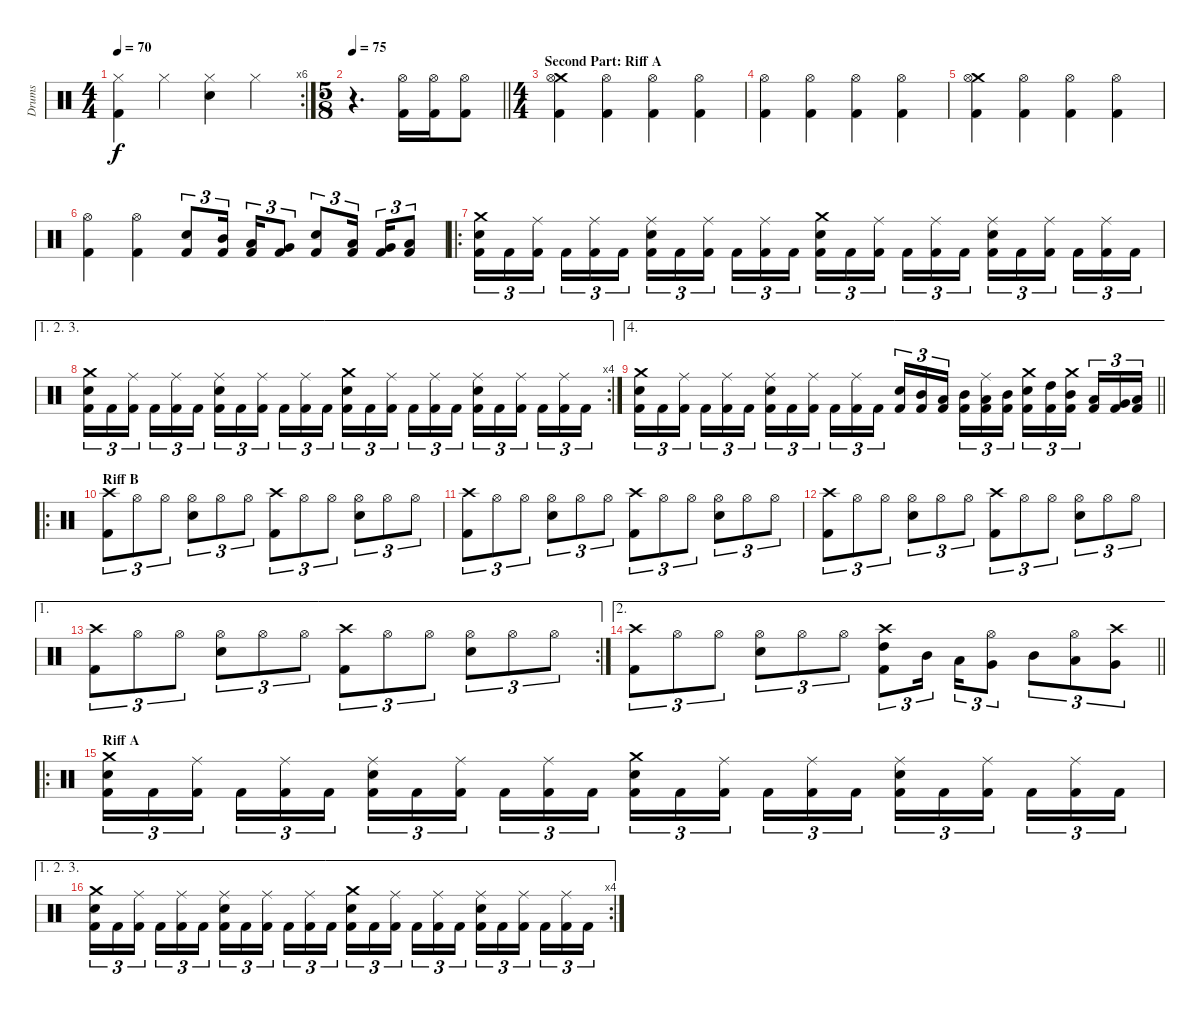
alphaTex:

\track ("Drums" "Drums") {instrument percussion}
\staff {score}
\articulation defaults
\rc 6
\ts (4 4)
\tempo 70
\clef neutral
\ks c
("Hi-Hat (closed)" "Kick (hit) 2").4{dy f} "Hi-Hat (closed)".4 ("Hi-Hat (closed)" "Electric Snare (hit)").4 "Hi-Hat (closed)".4 |
\ts (5 8)
\tempo 75
\barLineRight lightlight
r.4{d} ("Hi-Hat (open)" "Kick (hit) 2").16 ("Hi-Hat (open)" "Kick (hit) 2").16 ("Hi-Hat (open)" "Kick (hit) 2").8 |
\ts (4 4)
\section ("" "Second Part: Riff A")
("Crash medium (hit)" "Hi-Hat (open)" "Kick (hit) 2").4 ("Hi-Hat (open)" "Kick (hit) 2").4 ("Hi-Hat (open)" "Kick (hit) 2").4 ("Hi-Hat (open)" "Kick (hit) 2").4 |
("Hi-Hat (open)" "Kick (hit) 2").4 ("Hi-Hat (open)" "Kick (hit) 2").4 ("Hi-Hat (open)" "Kick (hit) 2").4 ("Hi-Hat (open)" "Kick (hit) 2").4 |
("Crash medium (hit)" "Hi-Hat (open)" "Kick (hit) 2").4 ("Hi-Hat (open)" "Kick (hit) 2").4 ("Hi-Hat (open)" "Kick (hit) 2").4 ("Hi-Hat (open)" "Kick (hit) 2").4 |
("Hi-Hat (open)" "Kick (hit) 2").4 ("Hi-Hat (open)" "Kick (hit) 2").4 ("Electric Snare (hit)" "Kick (hit) 2").8{tu (3 2)} ("Mid Tom (hit)" "Kick (hit) 2").16{tu (3 2) beam splitsecondary} ("Low Tom (hit)" "Kick (hit) 2").16{tu (3 2)} ("Very Low Tom (hit)" "Kick (hit) 2").8{tu (3 2)} ("Electric Snare (hit)" "Kick (hit) 2").8{tu (3 2)} ("Low Tom (hit)" "Kick (hit) 2").16{tu (3 2) beam splitsecondary} ("Very Low Tom (hit)" "Kick (hit) 2").16{tu (3 2)} ("Low Floor Tom (hit)" "Kick (hit) 2").8{tu (3 2)} |
\ro
("Crash medium (hit)" "Electric Snare (hit)" "Kick (hit) 2").16{tu (3 2)} "Kick (hit) 2".16{tu (3 2)} ("Ride (middle)" "Kick (hit) 2").16{tu (3 2) beam splitsecondary} "Kick (hit) 2".16{tu (3 2)} ("Ride (middle)" "Kick (hit) 2").16{tu (3 2)} "Kick (hit) 2".16{tu (3 2)} ("Ride (middle)" "Electric Snare (hit)" "Kick (hit) 2").16{tu (3 2)} "Kick (hit) 2".16{tu (3 2)} ("Ride (middle)" "Kick (hit) 2").16{tu (3 2) beam splitsecondary} "Kick (hit) 2".16{tu (3 2)} ("Ride (middle)" "Kick (hit) 2").16{tu (3 2)} "Kick (hit) 2".16{tu (3 2)} ("Crash medium (hit)" "Electric Snare (hit)" "Kick (hit) 2").16{tu (3 2)} "Kick (hit) 2".16{tu (3 2)} ("Ride (middle)" "Kick (hit) 2").16{tu (3 2) beam splitsecondary} "Kick (hit) 2".16{tu (3 2)} ("Ride (middle)" "Kick (hit) 2").16{tu (3 2)} "Kick (hit) 2".16{tu (3 2)} ("Ride (middle)" "Electric Snare (hit)" "Kick (hit) 2").16{tu (3 2)} "Kick (hit) 2".16{tu (3 2)} ("Ride (middle)" "Kick (hit) 2").16{tu (3 2) beam splitsecondary} "Kick (hit) 2".16{tu (3 2)} ("Ride (middle)" "Kick (hit) 2").16{tu (3 2)} "Kick (hit) 2".16{tu (3 2)} |
\ae (1 2 3)
\rc 4
("Crash medium (hit)" "Electric Snare (hit)" "Kick (hit) 2").16{tu (3 2)} "Kick (hit) 2".16{tu (3 2)} ("Ride (middle)" "Kick (hit) 2").16{tu (3 2) beam splitsecondary} "Kick (hit) 2".16{tu (3 2)} ("Ride (middle)" "Kick (hit) 2").16{tu (3 2)} "Kick (hit) 2".16{tu (3 2)} ("Ride (middle)" "Electric Snare (hit)" "Kick (hit) 2").16{tu (3 2)} "Kick (hit) 2".16{tu (3 2)} ("Ride (middle)" "Kick (hit) 2").16{tu (3 2) beam splitsecondary} "Kick (hit) 2".16{tu (3 2)} ("Ride (middle)" "Kick (hit) 2").16{tu (3 2)} "Kick (hit) 2".16{tu (3 2)} ("Crash medium (hit)" "Electric Snare (hit)" "Kick (hit) 2").16{tu (3 2)} "Kick (hit) 2".16{tu (3 2)} ("Ride (middle)" "Kick (hit) 2").16{tu (3 2) beam splitsecondary} "Kick (hit) 2".16{tu (3 2)} ("Ride (middle)" "Kick (hit) 2").16{tu (3 2)} "Kick (hit) 2".16{tu (3 2)} ("Ride (middle)" "Electric Snare (hit)" "Kick (hit) 2").16{tu (3 2)} "Kick (hit) 2".16{tu (3 2)} ("Ride (middle)" "Kick (hit) 2").16{tu (3 2) beam splitsecondary} "Kick (hit) 2".16{tu (3 2)} ("Ride (middle)" "Kick (hit) 2").16{tu (3 2)} "Kick (hit) 2".16{tu (3 2)} |
\ae 4
\barLineRight lightlight
("Crash medium (hit)" "Electric Snare (hit)" "Kick (hit) 2").16{tu (3 2)} "Kick (hit) 2".16{tu (3 2)} ("Ride (middle)" "Kick (hit) 2").16{tu (3 2) beam splitsecondary} "Kick (hit) 2".16{tu (3 2)} ("Ride (middle)" "Kick (hit) 2").16{tu (3 2)} "Kick (hit) 2".16{tu (3 2)} ("Ride (middle)" "Electric Snare (hit)" "Kick (hit) 2").16{tu (3 2)} "Kick (hit) 2".16{tu (3 2)} ("Ride (middle)" "Kick (hit) 2").16{tu (3 2) beam splitsecondary} "Kick (hit) 2".16{tu (3 2)} ("Ride (middle)" "Kick (hit) 2").16{tu (3 2)} "Kick (hit) 2".16{tu (3 2)} ("Electric Snare (hit)" "Kick (hit) 2").16{tu (3 2)} ("Mid Tom (hit)" "Kick (hit) 2").16{tu (3 2)} ("Low Tom (hit)" "Kick (hit) 2").16{tu (3 2) beam splitsecondary} ("Mid Tom (hit)" "Kick (hit) 2").16{tu (3 2)} ("Ride (middle)" "Low Tom (hit)" "Kick (hit) 2").16{tu (3 2)} ("Mid Tom (hit)" "Kick (hit) 2").16{tu (3 2)} ("Crash medium (hit)" "Electric Snare (hit)" "Kick (hit) 2").16{tu (3 2)} ("High Tom (hit)" "Kick (hit) 2").16{tu (3 2)} ("Crash medium (hit)" "Mid Tom (hit)" "Kick (hit) 2").16{tu (3 2) beam splitsecondary} ("Low Tom (hit)" "Kick (hit) 2").16{tu (3 2)} ("Very Low Tom (hit)" "Kick (hit) 2").16{tu (3 2)} ("Low Floor Tom (hit)" "Kick (hit) 2").16{tu (3 2)} |
\ro
\section ("" "Riff B")
("Crash high (hit)" "Kick (hit) 2").8{tu (3 2)} "Hi-Hat (open)".8{tu (3 2)} "Hi-Hat (open)".8{tu (3 2)} ("Hi-Hat (open)" "Electric Snare (hit)").8{tu (3 2)} "Hi-Hat (open)".8{tu (3 2)} "Hi-Hat (open)".8{tu (3 2)} ("Crash high (hit)" "Kick (hit) 2").8{tu (3 2)} "Hi-Hat (open)".8{tu (3 2)} "Hi-Hat (open)".8{tu (3 2)} ("Hi-Hat (open)" "Electric Snare (hit)").8{tu (3 2)} "Hi-Hat (open)".8{tu (3 2)} "Hi-Hat (open)".8{tu (3 2)} |
("Crash high (hit)" "Kick (hit) 2").8{tu (3 2)} "Hi-Hat (open)".8{tu (3 2)} "Hi-Hat (open)".8{tu (3 2)} ("Hi-Hat (open)" "Electric Snare (hit)").8{tu (3 2)} "Hi-Hat (open)".8{tu (3 2)} "Hi-Hat (open)".8{tu (3 2)} ("Crash high (hit)" "Kick (hit) 2").8{tu (3 2)} "Hi-Hat (open)".8{tu (3 2)} "Hi-Hat (open)".8{tu (3 2)} ("Hi-Hat (open)" "Electric Snare (hit)").8{tu (3 2)} "Hi-Hat (open)".8{tu (3 2)} "Hi-Hat (open)".8{tu (3 2)} |
("Crash high (hit)" "Kick (hit) 2").8{tu (3 2)} "Hi-Hat (open)".8{tu (3 2)} "Hi-Hat (open)".8{tu (3 2)} ("Hi-Hat (open)" "Electric Snare (hit)").8{tu (3 2)} "Hi-Hat (open)".8{tu (3 2)} "Hi-Hat (open)".8{tu (3 2)} ("Crash high (hit)" "Kick (hit) 2").8{tu (3 2)} "Hi-Hat (open)".8{tu (3 2)} "Hi-Hat (open)".8{tu (3 2)} ("Hi-Hat (open)" "Electric Snare (hit)").8{tu (3 2)} "Hi-Hat (open)".8{tu (3 2)} "Hi-Hat (open)".8{tu (3 2)} |
\ae 1
\rc 2
("Crash high (hit)" "Kick (hit) 2").8{tu (3 2)} "Hi-Hat (open)".8{tu (3 2)} "Hi-Hat (open)".8{tu (3 2)} ("Hi-Hat (open)" "Electric Snare (hit)").8{tu (3 2)} "Hi-Hat (open)".8{tu (3 2)} "Hi-Hat (open)".8{tu (3 2)} ("Crash high (hit)" "Kick (hit) 2").8{tu (3 2)} "Hi-Hat (open)".8{tu (3 2)} "Hi-Hat (open)".8{tu (3 2)} ("Hi-Hat (open)" "Electric Snare (hit)").8{tu (3 2)} "Hi-Hat (open)".8{tu (3 2)} "Hi-Hat (open)".8{tu (3 2)} |
\ae 2
\barLineRight lightlight
("Crash high (hit)" "Kick (hit) 2").8{tu (3 2)} "Hi-Hat (open)".8{tu (3 2)} "Hi-Hat (open)".8{tu (3 2)} ("Hi-Hat (open)" "Electric Snare (hit)").8{tu (3 2)} "Hi-Hat (open)".8{tu (3 2)} "Hi-Hat (open)".8{tu (3 2)} ("Crash high (hit)" "High Tom (hit)" "Kick (hit) 2").8{tu (3 2)} "Mid Tom (hit)".16{tu (3 2) beam splitsecondary} "Low Tom (hit)".16{tu (3 2)} ("Hi-Hat (open)" "Very Low Tom (hit)").8{tu (3 2)} "Mid Tom (hit)".8{tu (3 2)} ("Hi-Hat (open)" "Low Tom (hit)").8{tu (3 2)} ("Crash high (hit)" "Very Low Tom (hit)").8{tu (3 2)} |
\ro
\section ("" "Riff A")
("Crash medium (hit)" "Electric Snare (hit)" "Kick (hit) 2").16{tu (3 2)} "Kick (hit) 2".16{tu (3 2)} ("Ride (middle)" "Kick (hit) 2").16{tu (3 2) beam splitsecondary} "Kick (hit) 2".16{tu (3 2)} ("Ride (middle)" "Kick (hit) 2").16{tu (3 2)} "Kick (hit) 2".16{tu (3 2)} ("Ride (middle)" "Electric Snare (hit)" "Kick (hit) 2").16{tu (3 2)} "Kick (hit) 2".16{tu (3 2)} ("Ride (middle)" "Kick (hit) 2").16{tu (3 2) beam splitsecondary} "Kick (hit) 2".16{tu (3 2)} ("Ride (middle)" "Kick (hit) 2").16{tu (3 2)} "Kick (hit) 2".16{tu (3 2)} ("Crash medium (hit)" "Electric Snare (hit)" "Kick (hit) 2").16{tu (3 2)} "Kick (hit) 2".16{tu (3 2)} ("Ride (middle)" "Kick (hit) 2").16{tu (3 2) beam splitsecondary} "Kick (hit) 2".16{tu (3 2)} ("Ride (middle)" "Kick (hit) 2").16{tu (3 2)} "Kick (hit) 2".16{tu (3 2)} ("Ride (middle)" "Electric Snare (hit)" "Kick (hit) 2").16{tu (3 2)} "Kick (hit) 2".16{tu (3 2)} ("Ride (middle)" "Kick (hit) 2").16{tu (3 2) beam splitsecondary} "Kick (hit) 2".16{tu (3 2)} ("Ride (middle)" "Kick (hit) 2").16{tu (3 2)} "Kick (hit) 2".16{tu (3 2)} |
\ae (1 2 3)
\rc 4
("Crash medium (hit)" "Electric Snare (hit)" "Kick (hit) 2").16{tu (3 2)} "Kick (hit) 2".16{tu (3 2)} ("Ride (middle)" "Kick (hit) 2").16{tu (3 2) beam splitsecondary} "Kick (hit) 2".16{tu (3 2)} ("Ride (middle)" "Kick (hit) 2").16{tu (3 2)} "Kick (hit) 2".16{tu (3 2)} ("Ride (middle)" "Electric Snare (hit)" "Kick (hit) 2").16{tu (3 2)} "Kick (hit) 2".16{tu (3 2)} ("Ride (middle)" "Kick (hit) 2").16{tu (3 2) beam splitsecondary} "Kick (hit) 2".16{tu (3 2)} ("Ride (middle)" "Kick (hit) 2").16{tu (3 2)} "Kick (hit) 2".16{tu (3 2)} ("Crash medium (hit)" "Electric Snare (hit)" "Kick (hit) 2").16{tu (3 2)} "Kick (hit) 2".16{tu (3 2)} ("Ride (middle)" "Kick (hit) 2").16{tu (3 2) beam splitsecondary} "Kick (hit) 2".16{tu (3 2)} ("Ride (middle)" "Kick (hit) 2").16{tu (3 2)} "Kick (hit) 2".16{tu (3 2)} ("Ride (middle)" "Electric Snare (hit)" "Kick (hit) 2").16{tu (3 2)} "Kick (hit) 2".16{tu (3 2)} ("Ride (middle)" "Kick (hit) 2").16{tu (3 2) beam splitsecondary} "Kick (hit) 2".16{tu (3 2)} ("Ride (middle)" "Kick (hit) 2").16{tu (3 2)} "Kick (hit) 2".16{tu (3 2)}
